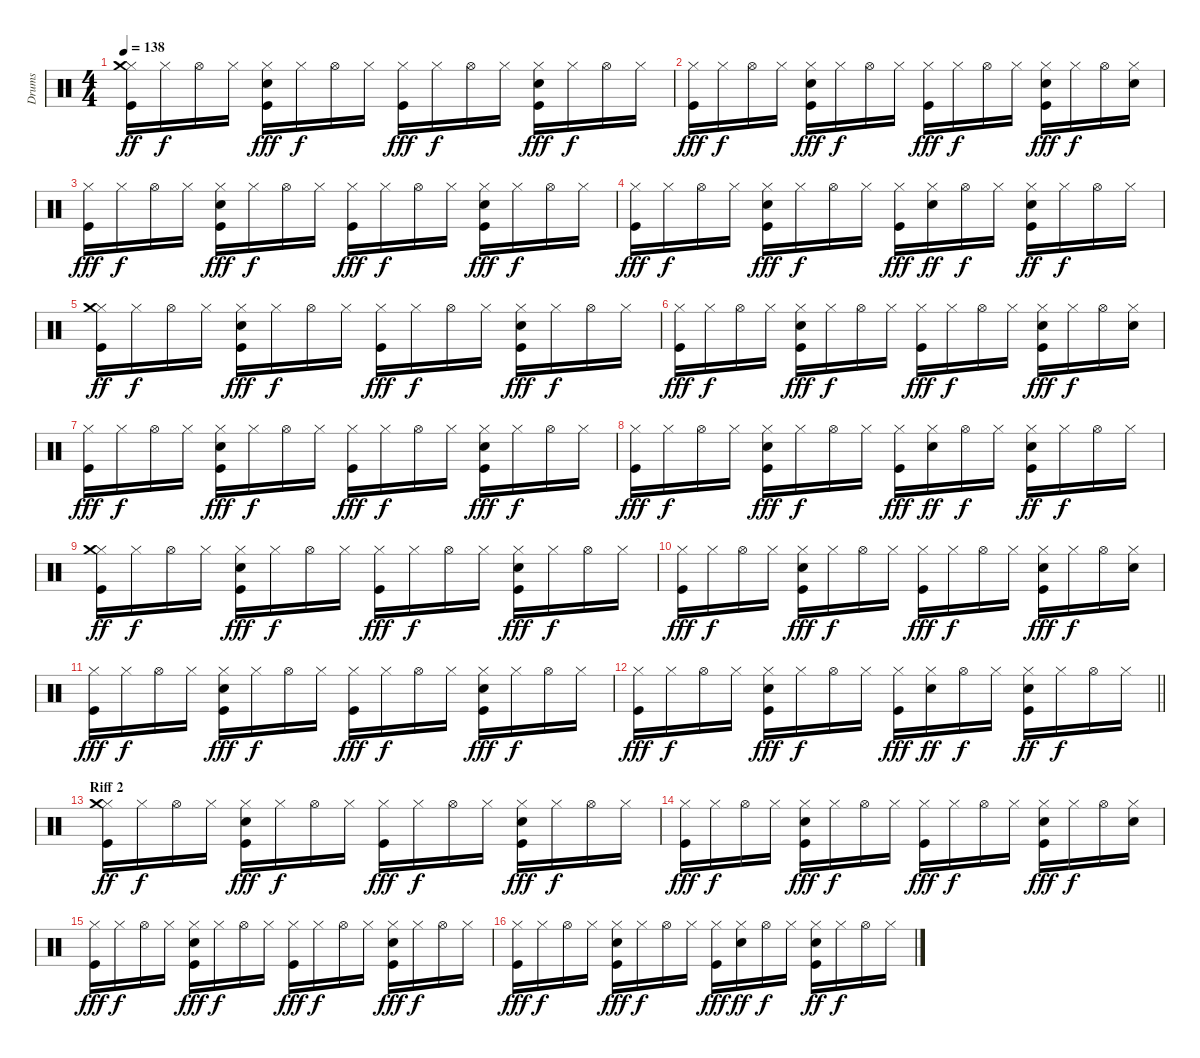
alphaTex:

\track ("Drums" "Drums") {instrument percussion}
\staff {score}
\articulation defaults
\ts (4 4)
\tempo 138
\clef neutral
\ks c
("Kick (hit)" "Hi-Hat (closed)" "Crash medium (hit)").16{dy ff} "Hi-Hat (closed)".16{dy f} "Hi-Hat (open)".16 "Hi-Hat (closed)".16 ("Kick (hit)" "Electric Snare (hit)" "Hi-Hat (closed)").16{dy fff} "Hi-Hat (closed)".16{dy f} "Hi-Hat (open)".16 "Hi-Hat (closed)".16 ("Kick (hit)" "Hi-Hat (closed)").16{dy fff} "Hi-Hat (closed)".16{dy f} "Hi-Hat (open)".16 "Hi-Hat (closed)".16 ("Kick (hit)" "Electric Snare (hit)" "Hi-Hat (closed)").16{dy fff} "Hi-Hat (closed)".16{dy f} "Hi-Hat (open)".16 "Hi-Hat (closed)".16 |
("Kick (hit)" "Hi-Hat (closed)").16{dy fff} "Hi-Hat (closed)".16{dy f} "Hi-Hat (open)".16 "Hi-Hat (closed)".16 ("Kick (hit)" "Electric Snare (hit)" "Hi-Hat (closed)").16{dy fff} "Hi-Hat (closed)".16{dy f} "Hi-Hat (open)".16 "Hi-Hat (closed)".16 ("Kick (hit)" "Hi-Hat (closed)").16{dy fff} "Hi-Hat (closed)".16{dy f} "Hi-Hat (open)".16 "Hi-Hat (closed)".16 ("Kick (hit)" "Electric Snare (hit)" "Hi-Hat (closed)").16{dy fff} "Hi-Hat (closed)".16{dy f} "Hi-Hat (open)".16 ("Electric Snare (hit)" "Hi-Hat (closed)").16 |
("Kick (hit)" "Hi-Hat (closed)").16{dy fff} "Hi-Hat (closed)".16{dy f} "Hi-Hat (open)".16 "Hi-Hat (closed)".16 ("Kick (hit)" "Electric Snare (hit)" "Hi-Hat (closed)").16{dy fff} "Hi-Hat (closed)".16{dy f} "Hi-Hat (open)".16 "Hi-Hat (closed)".16 ("Kick (hit)" "Hi-Hat (closed)").16{dy fff} "Hi-Hat (closed)".16{dy f} "Hi-Hat (open)".16 "Hi-Hat (closed)".16 ("Kick (hit)" "Electric Snare (hit)" "Hi-Hat (closed)").16{dy fff} "Hi-Hat (closed)".16{dy f} "Hi-Hat (open)".16 "Hi-Hat (closed)".16 |
("Kick (hit)" "Hi-Hat (closed)").16{dy fff} "Hi-Hat (closed)".16{dy f} "Hi-Hat (open)".16 "Hi-Hat (closed)".16 ("Kick (hit)" "Electric Snare (hit)" "Hi-Hat (closed)").16{dy fff} "Hi-Hat (closed)".16{dy f} "Hi-Hat (open)".16 "Hi-Hat (closed)".16 ("Kick (hit)" "Hi-Hat (closed)").16{dy fff} ("Electric Snare (hit)" "Hi-Hat (closed)").16{dy ff} "Hi-Hat (open)".16{dy f} "Hi-Hat (closed)".16 ("Kick (hit)" "Electric Snare (hit)" "Hi-Hat (closed)").16{dy ff} "Hi-Hat (closed)".16{dy f} "Hi-Hat (open)".16 "Hi-Hat (closed)".16 |
("Kick (hit)" "Hi-Hat (closed)" "Crash medium (hit)").16{dy ff} "Hi-Hat (closed)".16{dy f} "Hi-Hat (open)".16 "Hi-Hat (closed)".16 ("Kick (hit)" "Electric Snare (hit)" "Hi-Hat (closed)").16{dy fff} "Hi-Hat (closed)".16{dy f} "Hi-Hat (open)".16 "Hi-Hat (closed)".16 ("Kick (hit)" "Hi-Hat (closed)").16{dy fff} "Hi-Hat (closed)".16{dy f} "Hi-Hat (open)".16 "Hi-Hat (closed)".16 ("Kick (hit)" "Electric Snare (hit)" "Hi-Hat (closed)").16{dy fff} "Hi-Hat (closed)".16{dy f} "Hi-Hat (open)".16 "Hi-Hat (closed)".16 |
("Kick (hit)" "Hi-Hat (closed)").16{dy fff} "Hi-Hat (closed)".16{dy f} "Hi-Hat (open)".16 "Hi-Hat (closed)".16 ("Kick (hit)" "Electric Snare (hit)" "Hi-Hat (closed)").16{dy fff} "Hi-Hat (closed)".16{dy f} "Hi-Hat (open)".16 "Hi-Hat (closed)".16 ("Kick (hit)" "Hi-Hat (closed)").16{dy fff} "Hi-Hat (closed)".16{dy f} "Hi-Hat (open)".16 "Hi-Hat (closed)".16 ("Kick (hit)" "Electric Snare (hit)" "Hi-Hat (closed)").16{dy fff} "Hi-Hat (closed)".16{dy f} "Hi-Hat (open)".16 ("Electric Snare (hit)" "Hi-Hat (closed)").16 |
("Kick (hit)" "Hi-Hat (closed)").16{dy fff} "Hi-Hat (closed)".16{dy f} "Hi-Hat (open)".16 "Hi-Hat (closed)".16 ("Kick (hit)" "Electric Snare (hit)" "Hi-Hat (closed)").16{dy fff} "Hi-Hat (closed)".16{dy f} "Hi-Hat (open)".16 "Hi-Hat (closed)".16 ("Kick (hit)" "Hi-Hat (closed)").16{dy fff} "Hi-Hat (closed)".16{dy f} "Hi-Hat (open)".16 "Hi-Hat (closed)".16 ("Kick (hit)" "Electric Snare (hit)" "Hi-Hat (closed)").16{dy fff} "Hi-Hat (closed)".16{dy f} "Hi-Hat (open)".16 "Hi-Hat (closed)".16 |
("Kick (hit)" "Hi-Hat (closed)").16{dy fff} "Hi-Hat (closed)".16{dy f} "Hi-Hat (open)".16 "Hi-Hat (closed)".16 ("Kick (hit)" "Electric Snare (hit)" "Hi-Hat (closed)").16{dy fff} "Hi-Hat (closed)".16{dy f} "Hi-Hat (open)".16 "Hi-Hat (closed)".16 ("Kick (hit)" "Hi-Hat (closed)").16{dy fff} ("Electric Snare (hit)" "Hi-Hat (closed)").16{dy ff} "Hi-Hat (open)".16{dy f} "Hi-Hat (closed)".16 ("Kick (hit)" "Electric Snare (hit)" "Hi-Hat (closed)").16{dy ff} "Hi-Hat (closed)".16{dy f} "Hi-Hat (open)".16 "Hi-Hat (closed)".16 |
("Kick (hit)" "Hi-Hat (closed)" "Crash medium (hit)").16{dy ff} "Hi-Hat (closed)".16{dy f} "Hi-Hat (open)".16 "Hi-Hat (closed)".16 ("Kick (hit)" "Electric Snare (hit)" "Hi-Hat (closed)").16{dy fff} "Hi-Hat (closed)".16{dy f} "Hi-Hat (open)".16 "Hi-Hat (closed)".16 ("Kick (hit)" "Hi-Hat (closed)").16{dy fff} "Hi-Hat (closed)".16{dy f} "Hi-Hat (open)".16 "Hi-Hat (closed)".16 ("Kick (hit)" "Electric Snare (hit)" "Hi-Hat (closed)").16{dy fff} "Hi-Hat (closed)".16{dy f} "Hi-Hat (open)".16 "Hi-Hat (closed)".16 |
("Kick (hit)" "Hi-Hat (closed)").16{dy fff} "Hi-Hat (closed)".16{dy f} "Hi-Hat (open)".16 "Hi-Hat (closed)".16 ("Kick (hit)" "Electric Snare (hit)" "Hi-Hat (closed)").16{dy fff} "Hi-Hat (closed)".16{dy f} "Hi-Hat (open)".16 "Hi-Hat (closed)".16 ("Kick (hit)" "Hi-Hat (closed)").16{dy fff} "Hi-Hat (closed)".16{dy f} "Hi-Hat (open)".16 "Hi-Hat (closed)".16 ("Kick (hit)" "Electric Snare (hit)" "Hi-Hat (closed)").16{dy fff} "Hi-Hat (closed)".16{dy f} "Hi-Hat (open)".16 ("Electric Snare (hit)" "Hi-Hat (closed)").16 |
("Kick (hit)" "Hi-Hat (closed)").16{dy fff} "Hi-Hat (closed)".16{dy f} "Hi-Hat (open)".16 "Hi-Hat (closed)".16 ("Kick (hit)" "Electric Snare (hit)" "Hi-Hat (closed)").16{dy fff} "Hi-Hat (closed)".16{dy f} "Hi-Hat (open)".16 "Hi-Hat (closed)".16 ("Kick (hit)" "Hi-Hat (closed)").16{dy fff} "Hi-Hat (closed)".16{dy f} "Hi-Hat (open)".16 "Hi-Hat (closed)".16 ("Kick (hit)" "Electric Snare (hit)" "Hi-Hat (closed)").16{dy fff} "Hi-Hat (closed)".16{dy f} "Hi-Hat (open)".16 "Hi-Hat (closed)".16 |
\barLineRight lightlight
("Kick (hit)" "Hi-Hat (closed)").16{dy fff} "Hi-Hat (closed)".16{dy f} "Hi-Hat (open)".16 "Hi-Hat (closed)".16 ("Kick (hit)" "Electric Snare (hit)" "Hi-Hat (closed)").16{dy fff} "Hi-Hat (closed)".16{dy f} "Hi-Hat (open)".16 "Hi-Hat (closed)".16 ("Kick (hit)" "Hi-Hat (closed)").16{dy fff} ("Electric Snare (hit)" "Hi-Hat (closed)").16{dy ff} "Hi-Hat (open)".16{dy f} "Hi-Hat (closed)".16 ("Kick (hit)" "Electric Snare (hit)" "Hi-Hat (closed)").16{dy ff} "Hi-Hat (closed)".16{dy f} "Hi-Hat (open)".16 "Hi-Hat (closed)".16 |
\section ("" "Riff 2")
("Kick (hit)" "Hi-Hat (closed)" "Crash medium (hit)").16{dy ff} "Hi-Hat (closed)".16{dy f} "Hi-Hat (open)".16 "Hi-Hat (closed)".16 ("Kick (hit)" "Electric Snare (hit)" "Hi-Hat (closed)").16{dy fff} "Hi-Hat (closed)".16{dy f} "Hi-Hat (open)".16 "Hi-Hat (closed)".16 ("Kick (hit)" "Hi-Hat (closed)").16{dy fff} "Hi-Hat (closed)".16{dy f} "Hi-Hat (open)".16 "Hi-Hat (closed)".16 ("Kick (hit)" "Electric Snare (hit)" "Hi-Hat (closed)").16{dy fff} "Hi-Hat (closed)".16{dy f} "Hi-Hat (open)".16 "Hi-Hat (closed)".16 |
("Kick (hit)" "Hi-Hat (closed)").16{dy fff} "Hi-Hat (closed)".16{dy f} "Hi-Hat (open)".16 "Hi-Hat (closed)".16 ("Kick (hit)" "Electric Snare (hit)" "Hi-Hat (closed)").16{dy fff} "Hi-Hat (closed)".16{dy f} "Hi-Hat (open)".16 "Hi-Hat (closed)".16 ("Kick (hit)" "Hi-Hat (closed)").16{dy fff} "Hi-Hat (closed)".16{dy f} "Hi-Hat (open)".16 "Hi-Hat (closed)".16 ("Kick (hit)" "Electric Snare (hit)" "Hi-Hat (closed)").16{dy fff} "Hi-Hat (closed)".16{dy f} "Hi-Hat (open)".16 ("Electric Snare (hit)" "Hi-Hat (closed)").16 |
("Kick (hit)" "Hi-Hat (closed)").16{dy fff} "Hi-Hat (closed)".16{dy f} "Hi-Hat (open)".16 "Hi-Hat (closed)".16 ("Kick (hit)" "Electric Snare (hit)" "Hi-Hat (closed)").16{dy fff} "Hi-Hat (closed)".16{dy f} "Hi-Hat (open)".16 "Hi-Hat (closed)".16 ("Kick (hit)" "Hi-Hat (closed)").16{dy fff} "Hi-Hat (closed)".16{dy f} "Hi-Hat (open)".16 "Hi-Hat (closed)".16 ("Kick (hit)" "Electric Snare (hit)" "Hi-Hat (closed)").16{dy fff} "Hi-Hat (closed)".16{dy f} "Hi-Hat (open)".16 "Hi-Hat (closed)".16 |
("Kick (hit)" "Hi-Hat (closed)").16{dy fff} "Hi-Hat (closed)".16{dy f} "Hi-Hat (open)".16 "Hi-Hat (closed)".16 ("Kick (hit)" "Electric Snare (hit)" "Hi-Hat (closed)").16{dy fff} "Hi-Hat (closed)".16{dy f} "Hi-Hat (open)".16 "Hi-Hat (closed)".16 ("Kick (hit)" "Hi-Hat (closed)").16{dy fff} ("Electric Snare (hit)" "Hi-Hat (closed)").16{dy ff} "Hi-Hat (open)".16{dy f} "Hi-Hat (closed)".16 ("Kick (hit)" "Electric Snare (hit)" "Hi-Hat (closed)").16{dy ff} "Hi-Hat (closed)".16{dy f} "Hi-Hat (open)".16 "Hi-Hat (closed)".16
